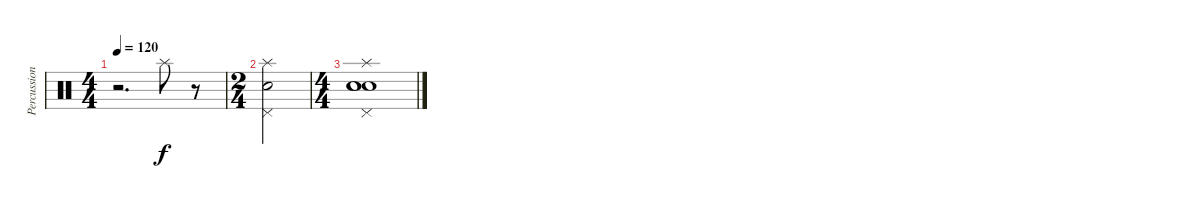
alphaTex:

\track ("Percussions" "Percussion") {instrument percussion}
\staff {score}
\articulation defaults
\ts (4 4)
\tempo 120
\clef neutral
\ks c
r.2{d dy f} "Splash (hit)".8 r.8 |
\ts (2 4)
("Snare (hit)" "Pedal Hi-Hat (hit)" "Splash (hit)").2 |
\ts (4 4)
("Snare (hit)" "Snare (hit)" "Snare (hit)" "Pedal Hi-Hat (hit)" "Splash (hit)").1
